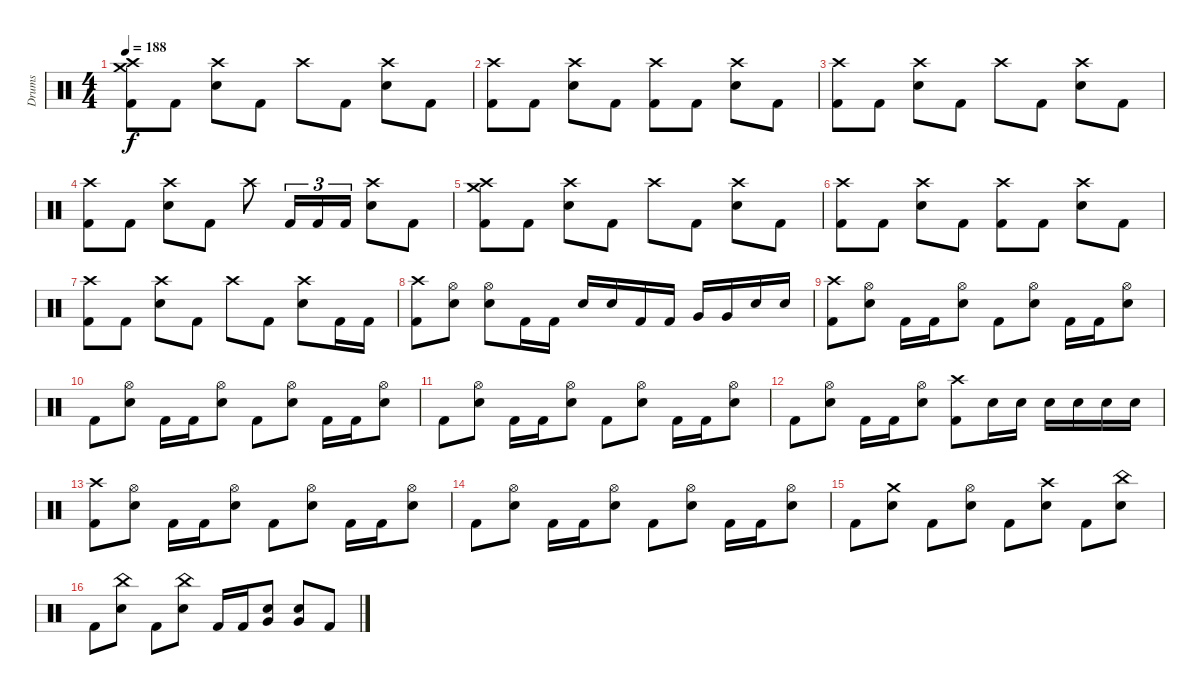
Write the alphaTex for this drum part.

\track ("Drums" "Drums") {instrument percussion}
\staff {score}
\articulation defaults
\ts (4 4)
\tempo 188
\clef neutral
\ks c
("Crash high (hit)" "Crash medium (hit)" "Kick (hit) 2").8{dy f} "Kick (hit) 2".8 ("Crash high (hit)" "Electric Snare (hit)").8 "Kick (hit) 2".8 "Crash high (hit)".8 "Kick (hit) 2".8 ("Crash high (hit)" "Electric Snare (hit)").8 "Kick (hit) 2".8 |
("Crash high (hit)" "Kick (hit) 2").8 "Kick (hit) 2".8 ("Crash high (hit)" "Electric Snare (hit)").8 "Kick (hit) 2".8 ("Crash high (hit)" "Kick (hit) 2").8 "Kick (hit) 2".8 ("Crash high (hit)" "Electric Snare (hit)").8 "Kick (hit) 2".8 |
("Crash high (hit)" "Kick (hit) 2").8 "Kick (hit) 2".8 ("Crash high (hit)" "Electric Snare (hit)").8 "Kick (hit) 2".8 "Crash high (hit)".8 "Kick (hit) 2".8 ("Crash high (hit)" "Electric Snare (hit)").8 "Kick (hit) 2".8 |
("Crash high (hit)" "Kick (hit) 2").8 "Kick (hit) 2".8 ("Crash high (hit)" "Electric Snare (hit)").8 "Kick (hit) 2".8 "Crash high (hit)".8 "Kick (hit) 2".16{tu (3 2)} "Kick (hit) 2".16{tu (3 2)} "Kick (hit) 2".16{tu (3 2)} ("Crash high (hit)" "Electric Snare (hit)").8 "Kick (hit) 2".8 |
("Crash high (hit)" "Crash medium (hit)" "Kick (hit) 2").8 "Kick (hit) 2".8 ("Crash high (hit)" "Electric Snare (hit)").8 "Kick (hit) 2".8 "Crash high (hit)".8 "Kick (hit) 2".8 ("Crash high (hit)" "Electric Snare (hit)").8 "Kick (hit) 2".8 |
("Crash high (hit)" "Kick (hit) 2").8 "Kick (hit) 2".8 ("Crash high (hit)" "Electric Snare (hit)").8 "Kick (hit) 2".8 ("Crash high (hit)" "Kick (hit) 2").8 "Kick (hit) 2".8 ("Crash high (hit)" "Electric Snare (hit)").8 "Kick (hit) 2".8 |
("Crash high (hit)" "Kick (hit) 2").8 "Kick (hit) 2".8 ("Crash high (hit)" "Electric Snare (hit)").8 "Kick (hit) 2".8 "Crash high (hit)".8 "Kick (hit) 2".8 ("Crash high (hit)" "Electric Snare (hit)").8 "Kick (hit) 2".16 "Kick (hit) 2".16 |
("Crash high (hit)" "Kick (hit) 2").8 ("Hi-Hat (open)" "Electric Snare (hit)").8 ("Hi-Hat (open)" "Electric Snare (hit)").8 "Kick (hit) 2".16 "Kick (hit) 2".16 "Electric Snare (hit)".16 "Electric Snare (hit)".16 "Kick (hit) 2".16 "Kick (hit) 2".16 "Very Low Tom (hit)".16 "Very Low Tom (hit)".16 "Electric Snare (hit)".16 "Electric Snare (hit)".16 |
("Crash high (hit)" "Kick (hit) 2").8 ("Hi-Hat (open)" "Electric Snare (hit)").8 "Kick (hit) 2".16 "Kick (hit) 2".16 ("Hi-Hat (open)" "Electric Snare (hit)").8 "Kick (hit) 2".8 ("Hi-Hat (open)" "Electric Snare (hit)").8 "Kick (hit) 2".16 "Kick (hit) 2".16 ("Hi-Hat (open)" "Electric Snare (hit)").8 |
"Kick (hit) 2".8 ("Hi-Hat (open)" "Electric Snare (hit)").8 "Kick (hit) 2".16 "Kick (hit) 2".16 ("Hi-Hat (open)" "Electric Snare (hit)").8 "Kick (hit) 2".8 ("Hi-Hat (open)" "Electric Snare (hit)").8 "Kick (hit) 2".16 "Kick (hit) 2".16 ("Hi-Hat (open)" "Electric Snare (hit)").8 |
"Kick (hit) 2".8 ("Hi-Hat (open)" "Electric Snare (hit)").8 "Kick (hit) 2".16 "Kick (hit) 2".16 ("Hi-Hat (open)" "Electric Snare (hit)").8 "Kick (hit) 2".8 ("Hi-Hat (open)" "Electric Snare (hit)").8 "Kick (hit) 2".16 "Kick (hit) 2".16 ("Hi-Hat (open)" "Electric Snare (hit)").8 |
"Kick (hit) 2".8 ("Hi-Hat (open)" "Electric Snare (hit)").8 "Kick (hit) 2".16 "Kick (hit) 2".16 ("Hi-Hat (open)" "Electric Snare (hit)").8 ("Crash high (hit)" "Kick (hit) 2").8 "Electric Snare (hit)".16 "Electric Snare (hit)".16 "Electric Snare (hit)".16 "Electric Snare (hit)".16 "Electric Snare (hit)".16 "Electric Snare (hit)".16 |
("Crash high (hit)" "Kick (hit) 2").8 ("Hi-Hat (open)" "Electric Snare (hit)").8 "Kick (hit) 2".16 "Kick (hit) 2".16 ("Hi-Hat (open)" "Electric Snare (hit)").8 "Kick (hit) 2".8 ("Hi-Hat (open)" "Electric Snare (hit)").8 "Kick (hit) 2".16 "Kick (hit) 2".16 ("Hi-Hat (open)" "Electric Snare (hit)").8 |
"Kick (hit) 2".8 ("Hi-Hat (open)" "Electric Snare (hit)").8 "Kick (hit) 2".16 "Kick (hit) 2".16 ("Hi-Hat (open)" "Electric Snare (hit)").8 "Kick (hit) 2".8 ("Hi-Hat (open)" "Electric Snare (hit)").8 "Kick (hit) 2".16 "Kick (hit) 2".16 ("Hi-Hat (open)" "Electric Snare (hit)").8 |
"Kick (hit) 2".8 ("Crash medium (hit)" "Electric Snare (hit)").8 "Kick (hit) 2".8 ("Hi-Hat (open)" "Electric Snare (hit)").8 "Kick (hit) 2".8 ("Crash high (hit)" "Electric Snare (hit)").8 "Kick (hit) 2".8 ("China (hit)" "Electric Snare (hit)").8 |
"Kick (hit) 2".8 ("China (hit)" "Electric Snare (hit)").8 "Kick (hit) 2".8 ("China (hit)" "Electric Snare (hit)").8 "Kick (hit) 2".16 "Kick (hit) 2".16 ("Very Low Tom (hit)" "Electric Snare (hit)").8 ("Very Low Tom (hit)" "Electric Snare (hit)").8 "Kick (hit) 2".8
